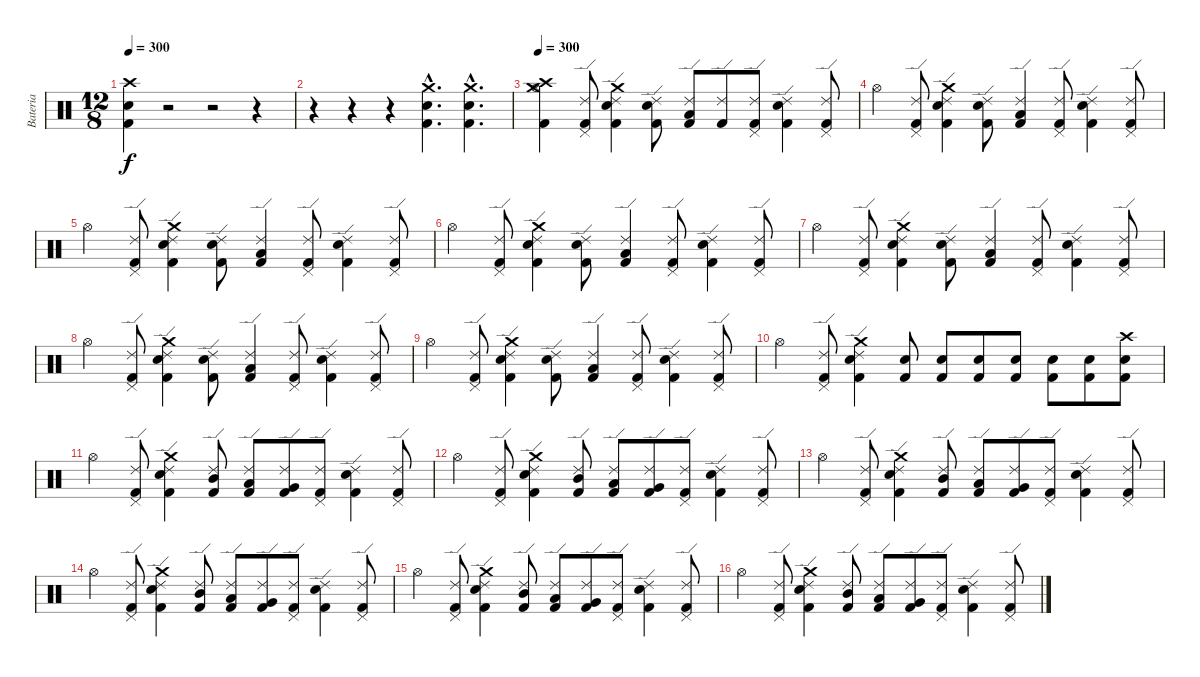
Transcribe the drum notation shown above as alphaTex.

\track ("Bateria" "Bateria") {instrument percussion}
\staff {score}
\articulation defaults
\ts (12 8)
\tempo 300
\clef neutral
\ks c
("Crash high (hit)" "Snare (hit) 2" "Kick (hit) 2").4{dy f} r.2 r.2 r.4 |
r.4 r.4 r.4 ("Crash medium (hit)"{hac} "Snare (hit) 2"{hac} "Kick (hit) 2"{hac}).4{d} ("Crash medium (hit)"{hac} "Snare (hit) 2"{hac} "Kick (hit) 2"{hac}).4{d} |
\tempo 300
("Crash high (hit)" "Crash medium (hit)" "Hi-Hat (open)" "Kick (hit) 2").4 ("Ride (edge) 2" "Pedal Hi-Hat (hit)" "Kick (hit) 2").8 ("Ride (edge) 2" "Crash medium (hit)" "Snare (hit) 2" "Kick (hit) 2").4 ("Ride (edge) 2" "Snare (hit) 2" "Kick (hit) 2").8 ("Ride (edge) 2" "Low Tom (hit)" "Kick (hit) 2").8 ("Ride (edge) 2" "Kick (hit) 2").8 ("Ride (edge) 2" "Pedal Hi-Hat (hit)" "Kick (hit) 2").8 ("Ride (edge) 2" "Snare (hit) 2" "Kick (hit) 2").4 ("Ride (edge) 2" "Pedal Hi-Hat (hit)" "Kick (hit) 2").8 |
"Hi-Hat (open)".4 ("Ride (edge) 2" "Pedal Hi-Hat (hit)" "Kick (hit) 2").8 ("Ride (edge) 2" "Crash medium (hit)" "Snare (hit) 2" "Kick (hit) 2").4 ("Ride (edge) 2" "Snare (hit) 2" "Kick (hit) 2").8 ("Ride (edge) 2" "Low Tom (hit)" "Kick (hit) 2").4 ("Ride (edge) 2" "Pedal Hi-Hat (hit)" "Kick (hit) 2").8 ("Ride (edge) 2" "Snare (hit) 2" "Kick (hit) 2").4 ("Ride (edge) 2" "Pedal Hi-Hat (hit)" "Kick (hit) 2").8 |
"Hi-Hat (open)".4 ("Ride (edge) 2" "Pedal Hi-Hat (hit)" "Kick (hit) 2").8 ("Ride (edge) 2" "Crash medium (hit)" "Snare (hit) 2" "Kick (hit) 2").4 ("Ride (edge) 2" "Snare (hit) 2" "Kick (hit) 2").8 ("Ride (edge) 2" "Low Tom (hit)" "Kick (hit) 2").4 ("Ride (edge) 2" "Pedal Hi-Hat (hit)" "Kick (hit) 2").8 ("Ride (edge) 2" "Snare (hit) 2" "Kick (hit) 2").4 ("Ride (edge) 2" "Pedal Hi-Hat (hit)" "Kick (hit) 2").8 |
"Hi-Hat (open)".4 ("Ride (edge) 2" "Pedal Hi-Hat (hit)" "Kick (hit) 2").8 ("Ride (edge) 2" "Crash medium (hit)" "Snare (hit) 2" "Kick (hit) 2").4 ("Ride (edge) 2" "Snare (hit) 2" "Kick (hit) 2").8 ("Ride (edge) 2" "Low Tom (hit)" "Kick (hit) 2").4 ("Ride (edge) 2" "Pedal Hi-Hat (hit)" "Kick (hit) 2").8 ("Ride (edge) 2" "Snare (hit) 2" "Kick (hit) 2").4 ("Ride (edge) 2" "Pedal Hi-Hat (hit)" "Kick (hit) 2").8 |
"Hi-Hat (open)".4 ("Ride (edge) 2" "Pedal Hi-Hat (hit)" "Kick (hit) 2").8 ("Ride (edge) 2" "Crash medium (hit)" "Snare (hit) 2" "Kick (hit) 2").4 ("Ride (edge) 2" "Snare (hit) 2" "Kick (hit) 2").8 ("Ride (edge) 2" "Low Tom (hit)" "Kick (hit) 2").4 ("Ride (edge) 2" "Pedal Hi-Hat (hit)" "Kick (hit) 2").8 ("Ride (edge) 2" "Snare (hit) 2" "Kick (hit) 2").4 ("Ride (edge) 2" "Pedal Hi-Hat (hit)" "Kick (hit) 2").8 |
"Hi-Hat (open)".4 ("Ride (edge) 2" "Pedal Hi-Hat (hit)" "Kick (hit) 2").8 ("Ride (edge) 2" "Crash medium (hit)" "Snare (hit) 2" "Kick (hit) 2").4 ("Ride (edge) 2" "Snare (hit) 2" "Kick (hit) 2").8 ("Ride (edge) 2" "Low Tom (hit)" "Kick (hit) 2").4 ("Ride (edge) 2" "Pedal Hi-Hat (hit)" "Kick (hit) 2").8 ("Ride (edge) 2" "Snare (hit) 2" "Kick (hit) 2").4 ("Ride (edge) 2" "Pedal Hi-Hat (hit)" "Kick (hit) 2").8 |
"Hi-Hat (open)".4 ("Ride (edge) 2" "Pedal Hi-Hat (hit)" "Kick (hit) 2").8 ("Ride (edge) 2" "Crash medium (hit)" "Snare (hit) 2" "Kick (hit) 2").4 ("Ride (edge) 2" "Snare (hit) 2" "Kick (hit) 2").8 ("Ride (edge) 2" "Low Tom (hit)" "Kick (hit) 2").4 ("Ride (edge) 2" "Pedal Hi-Hat (hit)" "Kick (hit) 2").8 ("Ride (edge) 2" "Snare (hit) 2" "Kick (hit) 2").4 ("Ride (edge) 2" "Pedal Hi-Hat (hit)" "Kick (hit) 2").8 |
"Hi-Hat (open)".4 ("Ride (edge) 2" "Pedal Hi-Hat (hit)" "Kick (hit) 2").8 ("Ride (edge) 2" "Crash medium (hit)" "Snare (hit) 2" "Kick (hit) 2").4 ("Snare (hit) 2" "Kick (hit) 2").8 ("Snare (hit) 2" "Kick (hit) 2").8 ("Snare (hit) 2" "Kick (hit) 2").8 ("Snare (hit) 2" "Kick (hit) 2").8 ("Snare (hit) 2" "Kick (hit) 2").8 ("Snare (hit) 2" "Kick (hit) 2").8 ("Crash high (hit)" "Snare (hit) 2" "Kick (hit) 2").8 |
"Hi-Hat (open)".4 ("Ride (edge) 2" "Pedal Hi-Hat (hit)" "Kick (hit) 2").8 ("Ride (edge) 2" "Crash medium (hit)" "Snare (hit) 2" "Kick (hit) 2").4 ("Ride (edge) 2" "Mid Tom (hit)" "Kick (hit) 2").8 ("Ride (edge) 2" "Low Tom (hit)" "Kick (hit) 2").8 ("Ride (edge) 2" "Very Low Tom (hit)" "Kick (hit) 2").8 ("Ride (edge) 2" "Pedal Hi-Hat (hit)" "Kick (hit) 2").8 ("Ride (edge) 2" "Snare (hit) 2" "Kick (hit) 2").4 ("Ride (edge) 2" "Pedal Hi-Hat (hit)" "Kick (hit) 2").8 |
"Hi-Hat (open)".4 ("Ride (edge) 2" "Pedal Hi-Hat (hit)" "Kick (hit) 2").8 ("Ride (edge) 2" "Crash medium (hit)" "Snare (hit) 2" "Kick (hit) 2").4 ("Ride (edge) 2" "Mid Tom (hit)" "Kick (hit) 2").8 ("Ride (edge) 2" "Low Tom (hit)" "Kick (hit) 2").8 ("Ride (edge) 2" "Very Low Tom (hit)" "Kick (hit) 2").8 ("Ride (edge) 2" "Pedal Hi-Hat (hit)" "Kick (hit) 2").8 ("Ride (edge) 2" "Snare (hit) 2" "Kick (hit) 2").4 ("Ride (edge) 2" "Pedal Hi-Hat (hit)" "Kick (hit) 2").8 |
"Hi-Hat (open)".4 ("Ride (edge) 2" "Pedal Hi-Hat (hit)" "Kick (hit) 2").8 ("Ride (edge) 2" "Crash medium (hit)" "Snare (hit) 2" "Kick (hit) 2").4 ("Ride (edge) 2" "Mid Tom (hit)" "Kick (hit) 2").8 ("Ride (edge) 2" "Low Tom (hit)" "Kick (hit) 2").8 ("Ride (edge) 2" "Very Low Tom (hit)" "Kick (hit) 2").8 ("Ride (edge) 2" "Pedal Hi-Hat (hit)" "Kick (hit) 2").8 ("Ride (edge) 2" "Snare (hit) 2" "Kick (hit) 2").4 ("Ride (edge) 2" "Pedal Hi-Hat (hit)" "Kick (hit) 2").8 |
"Hi-Hat (open)".4 ("Ride (edge) 2" "Pedal Hi-Hat (hit)" "Kick (hit) 2").8 ("Ride (edge) 2" "Crash medium (hit)" "Snare (hit) 2" "Kick (hit) 2").4 ("Ride (edge) 2" "Mid Tom (hit)" "Kick (hit) 2").8 ("Ride (edge) 2" "Low Tom (hit)" "Kick (hit) 2").8 ("Ride (edge) 2" "Very Low Tom (hit)" "Kick (hit) 2").8 ("Ride (edge) 2" "Pedal Hi-Hat (hit)" "Kick (hit) 2").8 ("Ride (edge) 2" "Snare (hit) 2" "Kick (hit) 2").4 ("Ride (edge) 2" "Pedal Hi-Hat (hit)" "Kick (hit) 2").8 |
"Hi-Hat (open)".4 ("Ride (edge) 2" "Pedal Hi-Hat (hit)" "Kick (hit) 2").8 ("Ride (edge) 2" "Crash medium (hit)" "Snare (hit) 2" "Kick (hit) 2").4 ("Ride (edge) 2" "Mid Tom (hit)" "Kick (hit) 2").8 ("Ride (edge) 2" "Low Tom (hit)" "Kick (hit) 2").8 ("Ride (edge) 2" "Very Low Tom (hit)" "Kick (hit) 2").8 ("Ride (edge) 2" "Pedal Hi-Hat (hit)" "Kick (hit) 2").8 ("Ride (edge) 2" "Snare (hit) 2" "Kick (hit) 2").4 ("Ride (edge) 2" "Pedal Hi-Hat (hit)" "Kick (hit) 2").8 |
"Hi-Hat (open)".4 ("Ride (edge) 2" "Pedal Hi-Hat (hit)" "Kick (hit) 2").8 ("Ride (edge) 2" "Crash medium (hit)" "Snare (hit) 2" "Kick (hit) 2").4 ("Ride (edge) 2" "Mid Tom (hit)" "Kick (hit) 2").8 ("Ride (edge) 2" "Low Tom (hit)" "Kick (hit) 2").8 ("Ride (edge) 2" "Very Low Tom (hit)" "Kick (hit) 2").8 ("Ride (edge) 2" "Pedal Hi-Hat (hit)" "Kick (hit) 2").8 ("Ride (edge) 2" "Snare (hit) 2" "Kick (hit) 2").4 ("Ride (edge) 2" "Pedal Hi-Hat (hit)" "Kick (hit) 2").8
